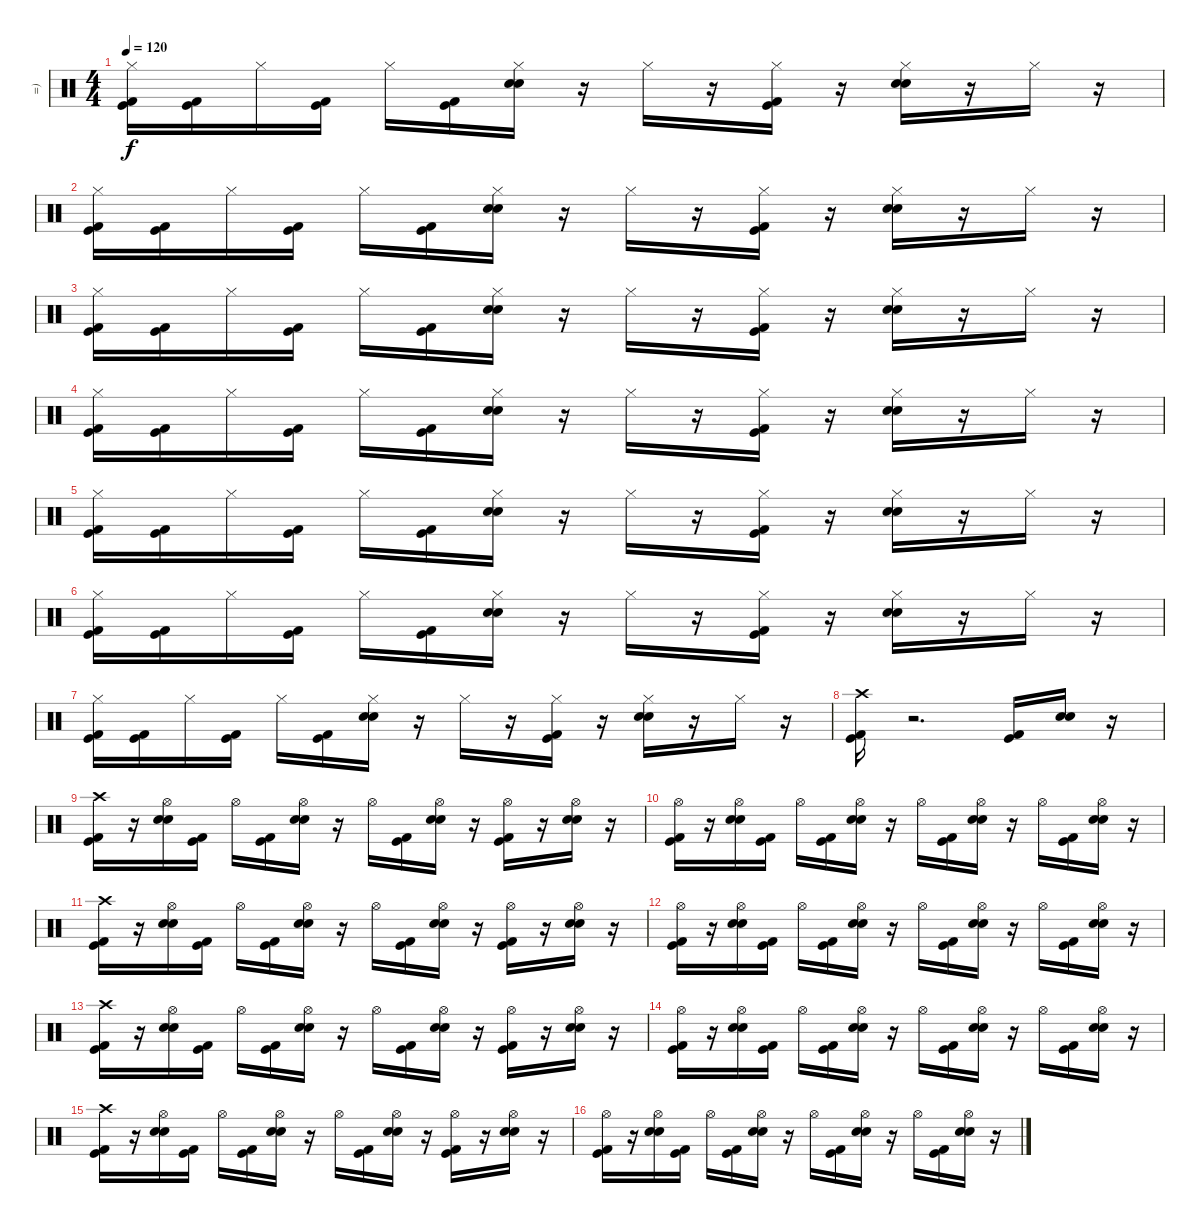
\track ("=)" "=)") {instrument percussion}
\staff {score}
\articulation defaults
\ts (4 4)
\tempo 120
\clef neutral
\ks c
("Hi-Hat (closed)" "Kick (hit)" "Kick (hit) 2").16{dy f} ("Kick (hit)" "Kick (hit) 2").16 "Hi-Hat (closed)".16 ("Kick (hit)" "Kick (hit) 2").16 "Hi-Hat (closed)".16 ("Kick (hit)" "Kick (hit) 2").16 ("Hi-Hat (closed)" "Snare (hit) 2" "Electric Snare (hit)").16 r.16 "Hi-Hat (closed)".16 r.16 ("Hi-Hat (closed)" "Kick (hit)" "Kick (hit) 2").16 r.16 ("Hi-Hat (closed)" "Snare (hit) 2" "Electric Snare (hit)").16 r.16 "Hi-Hat (closed)".16 r.16 |
("Hi-Hat (closed)" "Kick (hit)" "Kick (hit) 2").16 ("Kick (hit)" "Kick (hit) 2").16 "Hi-Hat (closed)".16 ("Kick (hit)" "Kick (hit) 2").16 "Hi-Hat (closed)".16 ("Kick (hit)" "Kick (hit) 2").16 ("Hi-Hat (closed)" "Snare (hit) 2" "Electric Snare (hit)").16 r.16 "Hi-Hat (closed)".16 r.16 ("Hi-Hat (closed)" "Kick (hit)" "Kick (hit) 2").16 r.16 ("Hi-Hat (closed)" "Snare (hit) 2" "Electric Snare (hit)").16 r.16 "Hi-Hat (closed)".16 r.16 |
("Hi-Hat (closed)" "Kick (hit)" "Kick (hit) 2").16 ("Kick (hit)" "Kick (hit) 2").16 "Hi-Hat (closed)".16 ("Kick (hit)" "Kick (hit) 2").16 "Hi-Hat (closed)".16 ("Kick (hit)" "Kick (hit) 2").16 ("Hi-Hat (closed)" "Snare (hit) 2" "Electric Snare (hit)").16 r.16 "Hi-Hat (closed)".16 r.16 ("Hi-Hat (closed)" "Kick (hit)" "Kick (hit) 2").16 r.16 ("Hi-Hat (closed)" "Snare (hit) 2" "Electric Snare (hit)").16 r.16 "Hi-Hat (closed)".16 r.16 |
("Hi-Hat (closed)" "Kick (hit)" "Kick (hit) 2").16 ("Kick (hit)" "Kick (hit) 2").16 "Hi-Hat (closed)".16 ("Kick (hit)" "Kick (hit) 2").16 "Hi-Hat (closed)".16 ("Kick (hit)" "Kick (hit) 2").16 ("Hi-Hat (closed)" "Snare (hit) 2" "Electric Snare (hit)").16 r.16 "Hi-Hat (closed)".16 r.16 ("Hi-Hat (closed)" "Kick (hit)" "Kick (hit) 2").16 r.16 ("Hi-Hat (closed)" "Snare (hit) 2" "Electric Snare (hit)").16 r.16 "Hi-Hat (closed)".16 r.16 |
("Hi-Hat (closed)" "Kick (hit)" "Kick (hit) 2").16 ("Kick (hit)" "Kick (hit) 2").16 "Hi-Hat (closed)".16 ("Kick (hit)" "Kick (hit) 2").16 "Hi-Hat (closed)".16 ("Kick (hit)" "Kick (hit) 2").16 ("Hi-Hat (closed)" "Snare (hit) 2" "Electric Snare (hit)").16 r.16 "Hi-Hat (closed)".16 r.16 ("Hi-Hat (closed)" "Kick (hit)" "Kick (hit) 2").16 r.16 ("Hi-Hat (closed)" "Snare (hit) 2" "Electric Snare (hit)").16 r.16 "Hi-Hat (closed)".16 r.16 |
("Hi-Hat (closed)" "Kick (hit)" "Kick (hit) 2").16 ("Kick (hit)" "Kick (hit) 2").16 "Hi-Hat (closed)".16 ("Kick (hit)" "Kick (hit) 2").16 "Hi-Hat (closed)".16 ("Kick (hit)" "Kick (hit) 2").16 ("Hi-Hat (closed)" "Snare (hit) 2" "Electric Snare (hit)").16 r.16 "Hi-Hat (closed)".16 r.16 ("Hi-Hat (closed)" "Kick (hit)" "Kick (hit) 2").16 r.16 ("Hi-Hat (closed)" "Snare (hit) 2" "Electric Snare (hit)").16 r.16 "Hi-Hat (closed)".16 r.16 |
("Hi-Hat (closed)" "Kick (hit)" "Kick (hit) 2").16 ("Kick (hit)" "Kick (hit) 2").16 "Hi-Hat (closed)".16 ("Kick (hit)" "Kick (hit) 2").16 "Hi-Hat (closed)".16 ("Kick (hit)" "Kick (hit) 2").16 ("Hi-Hat (closed)" "Snare (hit) 2" "Electric Snare (hit)").16 r.16 "Hi-Hat (closed)".16 r.16 ("Hi-Hat (closed)" "Kick (hit)" "Kick (hit) 2").16 r.16 ("Hi-Hat (closed)" "Snare (hit) 2" "Electric Snare (hit)").16 r.16 "Hi-Hat (closed)".16 r.16 |
("Crash high (hit)" "Kick (hit)" "Kick (hit) 2").16 r.2{d} ("Kick (hit)" "Kick (hit) 2").16 ("Snare (hit) 2" "Electric Snare (hit)").16 r.16 |
("Crash high (hit)" "Kick (hit)" "Kick (hit) 2").16 r.16 ("Hi-Hat (open)" "Snare (hit) 2" "Electric Snare (hit)").16 ("Kick (hit)" "Kick (hit) 2").16 "Hi-Hat (open)".16 ("Kick (hit)" "Kick (hit) 2").16 ("Hi-Hat (open)" "Snare (hit) 2" "Electric Snare (hit)").16 r.16 "Hi-Hat (open)".16 ("Kick (hit)" "Kick (hit) 2").16 ("Hi-Hat (open)" "Snare (hit) 2" "Electric Snare (hit)").16 r.16 ("Hi-Hat (open)" "Kick (hit)" "Kick (hit) 2").16 r.16 ("Hi-Hat (open)" "Snare (hit) 2" "Electric Snare (hit)").16 r.16 |
("Hi-Hat (open)" "Kick (hit)" "Kick (hit) 2").16 r.16 ("Hi-Hat (open)" "Snare (hit) 2" "Electric Snare (hit)").16 ("Kick (hit)" "Kick (hit) 2").16 "Hi-Hat (open)".16 ("Kick (hit)" "Kick (hit) 2").16 ("Hi-Hat (open)" "Snare (hit) 2" "Electric Snare (hit)").16 r.16 "Hi-Hat (open)".16 ("Kick (hit)" "Kick (hit) 2").16 ("Hi-Hat (open)" "Snare (hit) 2" "Electric Snare (hit)").16 r.16 "Hi-Hat (open)".16 ("Kick (hit)" "Kick (hit) 2").16 ("Hi-Hat (open)" "Snare (hit) 2" "Electric Snare (hit)").16 r.16 |
("Crash high (hit)" "Kick (hit)" "Kick (hit) 2").16 r.16 ("Hi-Hat (open)" "Snare (hit) 2" "Electric Snare (hit)").16 ("Kick (hit)" "Kick (hit) 2").16 "Hi-Hat (open)".16 ("Kick (hit)" "Kick (hit) 2").16 ("Hi-Hat (open)" "Snare (hit) 2" "Electric Snare (hit)").16 r.16 "Hi-Hat (open)".16 ("Kick (hit)" "Kick (hit) 2").16 ("Hi-Hat (open)" "Snare (hit) 2" "Electric Snare (hit)").16 r.16 ("Hi-Hat (open)" "Kick (hit)" "Kick (hit) 2").16 r.16 ("Hi-Hat (open)" "Snare (hit) 2" "Electric Snare (hit)").16 r.16 |
("Hi-Hat (open)" "Kick (hit)" "Kick (hit) 2").16 r.16 ("Hi-Hat (open)" "Snare (hit) 2" "Electric Snare (hit)").16 ("Kick (hit)" "Kick (hit) 2").16 "Hi-Hat (open)".16 ("Kick (hit)" "Kick (hit) 2").16 ("Hi-Hat (open)" "Snare (hit) 2" "Electric Snare (hit)").16 r.16 "Hi-Hat (open)".16 ("Kick (hit)" "Kick (hit) 2").16 ("Hi-Hat (open)" "Snare (hit) 2" "Electric Snare (hit)").16 r.16 "Hi-Hat (open)".16 ("Kick (hit)" "Kick (hit) 2").16 ("Hi-Hat (open)" "Snare (hit) 2" "Electric Snare (hit)").16 r.16 |
("Crash high (hit)" "Kick (hit)" "Kick (hit) 2").16 r.16 ("Hi-Hat (open)" "Snare (hit) 2" "Electric Snare (hit)").16 ("Kick (hit)" "Kick (hit) 2").16 "Hi-Hat (open)".16 ("Kick (hit)" "Kick (hit) 2").16 ("Hi-Hat (open)" "Snare (hit) 2" "Electric Snare (hit)").16 r.16 "Hi-Hat (open)".16 ("Kick (hit)" "Kick (hit) 2").16 ("Hi-Hat (open)" "Snare (hit) 2" "Electric Snare (hit)").16 r.16 ("Hi-Hat (open)" "Kick (hit)" "Kick (hit) 2").16 r.16 ("Hi-Hat (open)" "Snare (hit) 2" "Electric Snare (hit)").16 r.16 |
("Hi-Hat (open)" "Kick (hit)" "Kick (hit) 2").16 r.16 ("Hi-Hat (open)" "Snare (hit) 2" "Electric Snare (hit)").16 ("Kick (hit)" "Kick (hit) 2").16 "Hi-Hat (open)".16 ("Kick (hit)" "Kick (hit) 2").16 ("Hi-Hat (open)" "Snare (hit) 2" "Electric Snare (hit)").16 r.16 "Hi-Hat (open)".16 ("Kick (hit)" "Kick (hit) 2").16 ("Hi-Hat (open)" "Snare (hit) 2" "Electric Snare (hit)").16 r.16 "Hi-Hat (open)".16 ("Kick (hit)" "Kick (hit) 2").16 ("Hi-Hat (open)" "Snare (hit) 2" "Electric Snare (hit)").16 r.16 |
("Crash high (hit)" "Kick (hit)" "Kick (hit) 2").16 r.16 ("Hi-Hat (open)" "Snare (hit) 2" "Electric Snare (hit)").16 ("Kick (hit)" "Kick (hit) 2").16 "Hi-Hat (open)".16 ("Kick (hit)" "Kick (hit) 2").16 ("Hi-Hat (open)" "Snare (hit) 2" "Electric Snare (hit)").16 r.16 "Hi-Hat (open)".16 ("Kick (hit)" "Kick (hit) 2").16 ("Hi-Hat (open)" "Snare (hit) 2" "Electric Snare (hit)").16 r.16 ("Hi-Hat (open)" "Kick (hit)" "Kick (hit) 2").16 r.16 ("Hi-Hat (open)" "Snare (hit) 2" "Electric Snare (hit)").16 r.16 |
("Hi-Hat (open)" "Kick (hit)" "Kick (hit) 2").16 r.16 ("Hi-Hat (open)" "Snare (hit) 2" "Electric Snare (hit)").16 ("Kick (hit)" "Kick (hit) 2").16 "Hi-Hat (open)".16 ("Kick (hit)" "Kick (hit) 2").16 ("Hi-Hat (open)" "Snare (hit) 2" "Electric Snare (hit)").16 r.16 "Hi-Hat (open)".16 ("Kick (hit)" "Kick (hit) 2").16 ("Hi-Hat (open)" "Snare (hit) 2" "Electric Snare (hit)").16 r.16 "Hi-Hat (open)".16 ("Kick (hit)" "Kick (hit) 2").16 ("Hi-Hat (open)" "Snare (hit) 2" "Electric Snare (hit)").16 r.16
